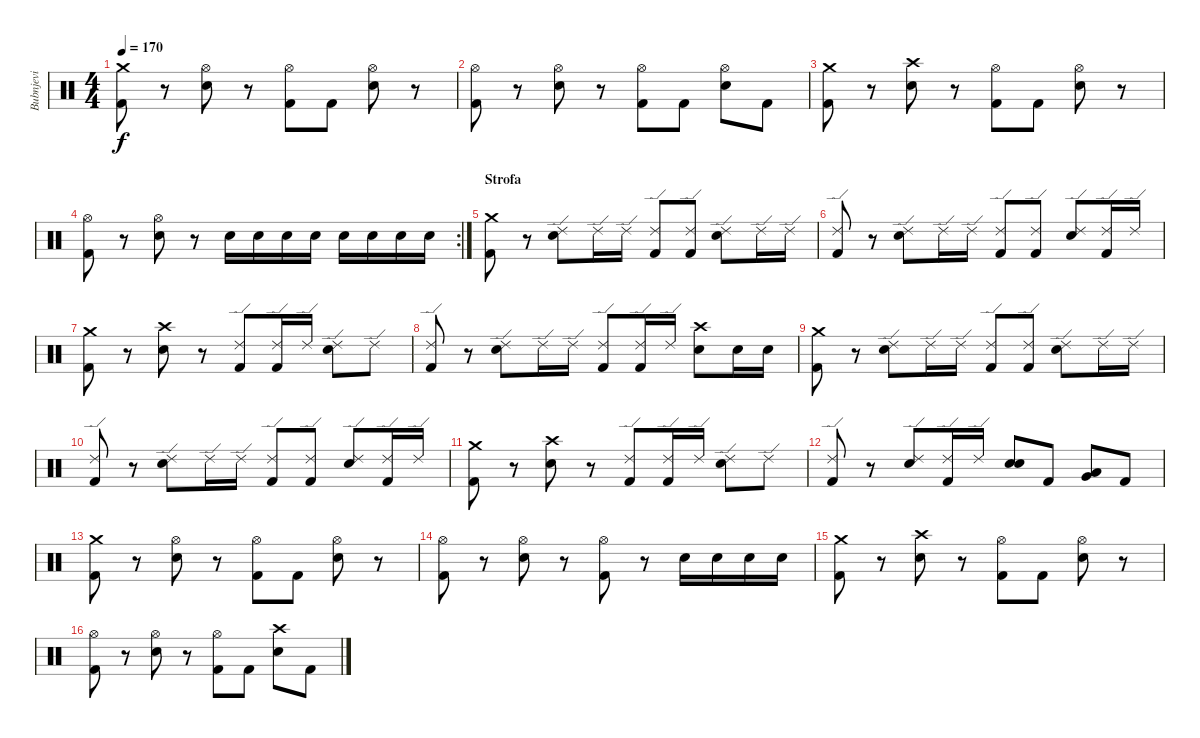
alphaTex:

\track ("Bubnjevi" "Bubnjevi") {instrument percussion}
\staff {score}
\articulation defaults
\ts (4 4)
\tempo 170
\clef neutral
\ks c
("Crash medium (hit)" "Kick (hit) 2").8{dy f} r.8 ("Hi-Hat (open)" "Electric Snare (hit)").8 r.8 ("Hi-Hat (open)" "Kick (hit) 2").8 "Kick (hit) 2".8 ("Hi-Hat (open)" "Electric Snare (hit)").8 r.8 |
("Hi-Hat (open)" "Kick (hit) 2").8 r.8 ("Hi-Hat (open)" "Electric Snare (hit)").8 r.8 ("Hi-Hat (open)" "Kick (hit) 2").8 "Kick (hit) 2".8 ("Hi-Hat (open)" "Electric Snare (hit)").8 "Kick (hit) 2".8 |
("Crash medium (hit)" "Kick (hit) 2").8 r.8 ("Crash high (hit)" "Electric Snare (hit)").8 r.8 ("Hi-Hat (open)" "Kick (hit) 2").8 "Kick (hit) 2".8 ("Hi-Hat (open)" "Electric Snare (hit)").8 r.8 |
\rc 2
("Hi-Hat (open)" "Kick (hit) 2").8 r.8 ("Hi-Hat (open)" "Electric Snare (hit)").8 r.8 "Electric Snare (hit)".16 "Electric Snare (hit)".16 "Electric Snare (hit)".16 "Electric Snare (hit)".16 "Electric Snare (hit)".16 "Electric Snare (hit)".16 "Electric Snare (hit)".16 "Electric Snare (hit)".16 |
\section ("" "Strofa")
("Crash medium (hit)" "Kick (hit) 2").8 r.8 ("Ride (edge) 2" "Electric Snare (hit)").8 "Ride (edge) 2".16 "Ride (edge) 2".16 ("Ride (edge) 2" "Kick (hit) 2").8 ("Ride (edge) 2" "Kick (hit) 2").8 ("Ride (edge) 2" "Electric Snare (hit)").8 "Ride (edge) 2".16 "Ride (edge) 2".16 |
("Ride (edge) 2" "Kick (hit) 2").8 r.8 ("Ride (edge) 2" "Electric Snare (hit)").8 "Ride (edge) 2".16 "Ride (edge) 2".16 ("Ride (edge) 2" "Kick (hit) 2").8 ("Ride (edge) 2" "Kick (hit) 2").8 ("Ride (edge) 2" "Electric Snare (hit)").8 ("Ride (edge) 2" "Kick (hit) 2").16 "Ride (edge) 2".16 |
("Crash medium (hit)" "Kick (hit) 2").8 r.8 ("Crash high (hit)" "Electric Snare (hit)").8 r.8 ("Ride (edge) 2" "Kick (hit) 2").8 ("Ride (edge) 2" "Kick (hit) 2").16 "Ride (edge) 2".16 ("Ride (edge) 2" "Electric Snare (hit)").8 "Ride (edge) 2".8 |
("Ride (edge) 2" "Kick (hit) 2").8 r.8 ("Ride (edge) 2" "Electric Snare (hit)").8 "Ride (edge) 2".16 "Ride (edge) 2".16 ("Ride (edge) 2" "Kick (hit) 2").8 ("Ride (edge) 2" "Kick (hit) 2").16 "Ride (edge) 2".16 ("Crash high (hit)" "Electric Snare (hit)").8 "Electric Snare (hit)".16 "Electric Snare (hit)".16 |
("Crash medium (hit)" "Kick (hit) 2").8 r.8 ("Ride (edge) 2" "Electric Snare (hit)").8 "Ride (edge) 2".16 "Ride (edge) 2".16 ("Ride (edge) 2" "Kick (hit) 2").8 ("Ride (edge) 2" "Kick (hit) 2").8 ("Ride (edge) 2" "Electric Snare (hit)").8 "Ride (edge) 2".16 "Ride (edge) 2".16 |
("Ride (edge) 2" "Kick (hit) 2").8 r.8 ("Ride (edge) 2" "Electric Snare (hit)").8 "Ride (edge) 2".16 "Ride (edge) 2".16 ("Ride (edge) 2" "Kick (hit) 2").8 ("Ride (edge) 2" "Kick (hit) 2").8 ("Ride (edge) 2" "Electric Snare (hit)").8 ("Ride (edge) 2" "Kick (hit) 2").16 "Ride (edge) 2".16 |
("Crash medium (hit)" "Kick (hit) 2").8 r.8 ("Crash high (hit)" "Electric Snare (hit)").8 r.8 ("Ride (edge) 2" "Kick (hit) 2").8 ("Ride (edge) 2" "Kick (hit) 2").16 "Ride (edge) 2".16 ("Ride (edge) 2" "Electric Snare (hit)").8 "Ride (edge) 2".8 |
("Ride (edge) 2" "Kick (hit) 2").8 r.8 ("Ride (edge) 2" "Electric Snare (hit)").8 ("Ride (edge) 2" "Kick (hit) 2").16 "Ride (edge) 2".16 ("Electric Snare (hit)" "Electric Snare (hit)").8{bd 240} "Kick (hit) 2".8 ("Low Tom (hit)" "Very Low Tom (hit)").8{bd 240} "Kick (hit) 2".8 |
("Crash medium (hit)" "Kick (hit) 2").8 r.8 ("Hi-Hat (open)" "Electric Snare (hit)").8 r.8 ("Hi-Hat (open)" "Kick (hit) 2").8 "Kick (hit) 2".8 ("Hi-Hat (open)" "Electric Snare (hit)").8 r.8 |
("Hi-Hat (open)" "Kick (hit) 2").8 r.8 ("Hi-Hat (open)" "Electric Snare (hit)").8 r.8 ("Hi-Hat (open)" "Kick (hit) 2").8 r.8 "Electric Snare (hit)".16 "Electric Snare (hit)".16 "Electric Snare (hit)".16 "Electric Snare (hit)".16 |
("Crash medium (hit)" "Kick (hit) 2").8 r.8 ("Crash high (hit)" "Electric Snare (hit)").8 r.8 ("Hi-Hat (open)" "Kick (hit) 2").8 "Kick (hit) 2".8 ("Hi-Hat (open)" "Electric Snare (hit)").8 r.8 |
("Hi-Hat (open)" "Kick (hit) 2").8 r.8 ("Hi-Hat (open)" "Electric Snare (hit)").8 r.8 ("Hi-Hat (open)" "Kick (hit) 2").8 "Kick (hit) 2".8 ("Crash high (hit)" "Electric Snare (hit)").8 "Kick (hit) 2".8
